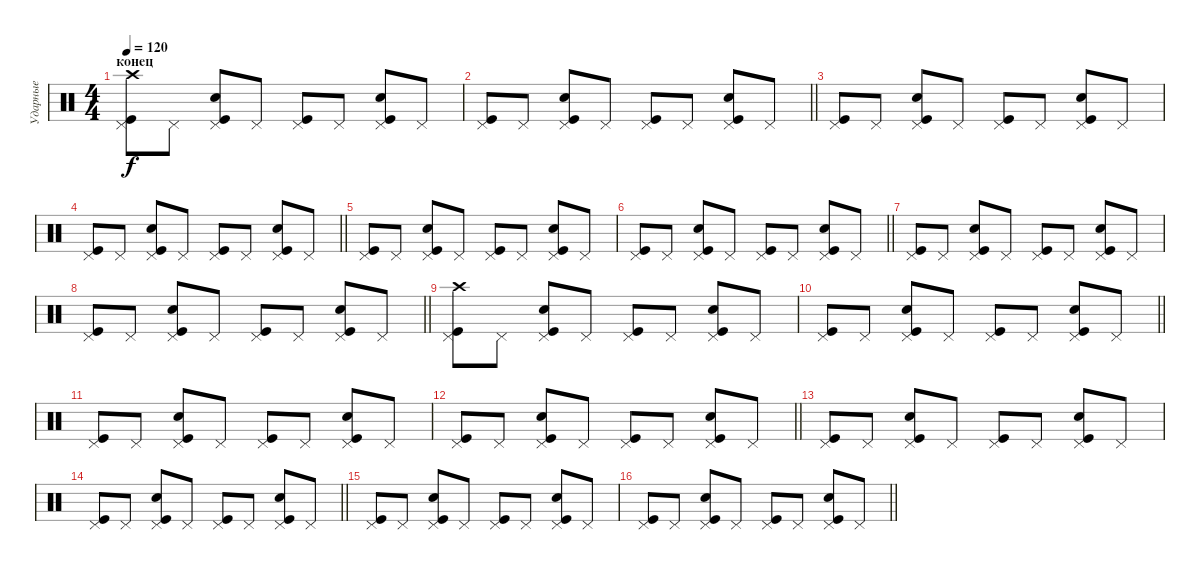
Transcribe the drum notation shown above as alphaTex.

\track ("Ударные" "Ударные") {instrument percussion}
\staff {score}
\articulation defaults
\ts (4 4)
\section ("" "конец")
\tempo 120
\clef neutral
\ks c
("Pedal Hi-Hat (hit)" "Kick (hit)" "Crash high (hit)").8{dy f} "Pedal Hi-Hat (hit)".8 ("Pedal Hi-Hat (hit)" "Kick (hit)" "Snare (hit) 2").8 "Pedal Hi-Hat (hit)".8 ("Pedal Hi-Hat (hit)" "Kick (hit)").8 "Pedal Hi-Hat (hit)".8 ("Pedal Hi-Hat (hit)" "Kick (hit)" "Snare (hit) 2").8 "Pedal Hi-Hat (hit)".8 |
\barLineRight lightlight
("Pedal Hi-Hat (hit)" "Kick (hit)").8 "Pedal Hi-Hat (hit)".8 ("Pedal Hi-Hat (hit)" "Kick (hit)" "Snare (hit) 2").8 "Pedal Hi-Hat (hit)".8 ("Pedal Hi-Hat (hit)" "Kick (hit)").8 "Pedal Hi-Hat (hit)".8 ("Pedal Hi-Hat (hit)" "Kick (hit)" "Snare (hit) 2").8 "Pedal Hi-Hat (hit)".8 |
("Pedal Hi-Hat (hit)" "Kick (hit)").8 "Pedal Hi-Hat (hit)".8 ("Pedal Hi-Hat (hit)" "Kick (hit)" "Snare (hit) 2").8 "Pedal Hi-Hat (hit)".8 ("Pedal Hi-Hat (hit)" "Kick (hit)").8 "Pedal Hi-Hat (hit)".8 ("Pedal Hi-Hat (hit)" "Kick (hit)" "Snare (hit) 2").8 "Pedal Hi-Hat (hit)".8 |
\barLineRight lightlight
("Pedal Hi-Hat (hit)" "Kick (hit)").8 "Pedal Hi-Hat (hit)".8 ("Pedal Hi-Hat (hit)" "Kick (hit)" "Snare (hit) 2").8 "Pedal Hi-Hat (hit)".8 ("Pedal Hi-Hat (hit)" "Kick (hit)").8 "Pedal Hi-Hat (hit)".8 ("Pedal Hi-Hat (hit)" "Kick (hit)" "Snare (hit) 2").8 "Pedal Hi-Hat (hit)".8 |
("Pedal Hi-Hat (hit)" "Kick (hit)").8 "Pedal Hi-Hat (hit)".8 ("Pedal Hi-Hat (hit)" "Kick (hit)" "Snare (hit) 2").8 "Pedal Hi-Hat (hit)".8 ("Pedal Hi-Hat (hit)" "Kick (hit)").8 "Pedal Hi-Hat (hit)".8 ("Pedal Hi-Hat (hit)" "Kick (hit)" "Snare (hit) 2").8 "Pedal Hi-Hat (hit)".8 |
\barLineRight lightlight
("Pedal Hi-Hat (hit)" "Kick (hit)").8 "Pedal Hi-Hat (hit)".8 ("Pedal Hi-Hat (hit)" "Kick (hit)" "Snare (hit) 2").8 "Pedal Hi-Hat (hit)".8 ("Pedal Hi-Hat (hit)" "Kick (hit)").8 "Pedal Hi-Hat (hit)".8 ("Pedal Hi-Hat (hit)" "Kick (hit)" "Snare (hit) 2").8 "Pedal Hi-Hat (hit)".8 |
("Pedal Hi-Hat (hit)" "Kick (hit)").8 "Pedal Hi-Hat (hit)".8 ("Pedal Hi-Hat (hit)" "Kick (hit)" "Snare (hit) 2").8 "Pedal Hi-Hat (hit)".8 ("Pedal Hi-Hat (hit)" "Kick (hit)").8 "Pedal Hi-Hat (hit)".8 ("Pedal Hi-Hat (hit)" "Kick (hit)" "Snare (hit) 2").8 "Pedal Hi-Hat (hit)".8 |
\barLineRight lightlight
("Pedal Hi-Hat (hit)" "Kick (hit)").8 "Pedal Hi-Hat (hit)".8 ("Pedal Hi-Hat (hit)" "Kick (hit)" "Snare (hit) 2").8 "Pedal Hi-Hat (hit)".8 ("Pedal Hi-Hat (hit)" "Kick (hit)").8 "Pedal Hi-Hat (hit)".8 ("Pedal Hi-Hat (hit)" "Kick (hit)" "Snare (hit) 2").8 "Pedal Hi-Hat (hit)".8 |
("Pedal Hi-Hat (hit)" "Kick (hit)" "Crash high (hit)").8 "Pedal Hi-Hat (hit)".8 ("Pedal Hi-Hat (hit)" "Kick (hit)" "Snare (hit) 2").8 "Pedal Hi-Hat (hit)".8 ("Pedal Hi-Hat (hit)" "Kick (hit)").8 "Pedal Hi-Hat (hit)".8 ("Pedal Hi-Hat (hit)" "Kick (hit)" "Snare (hit) 2").8 "Pedal Hi-Hat (hit)".8 |
\barLineRight lightlight
("Pedal Hi-Hat (hit)" "Kick (hit)").8 "Pedal Hi-Hat (hit)".8 ("Pedal Hi-Hat (hit)" "Kick (hit)" "Snare (hit) 2").8 "Pedal Hi-Hat (hit)".8 ("Pedal Hi-Hat (hit)" "Kick (hit)").8 "Pedal Hi-Hat (hit)".8 ("Pedal Hi-Hat (hit)" "Kick (hit)" "Snare (hit) 2").8 "Pedal Hi-Hat (hit)".8 |
("Pedal Hi-Hat (hit)" "Kick (hit)").8 "Pedal Hi-Hat (hit)".8 ("Pedal Hi-Hat (hit)" "Kick (hit)" "Snare (hit) 2").8 "Pedal Hi-Hat (hit)".8 ("Pedal Hi-Hat (hit)" "Kick (hit)").8 "Pedal Hi-Hat (hit)".8 ("Pedal Hi-Hat (hit)" "Kick (hit)" "Snare (hit) 2").8 "Pedal Hi-Hat (hit)".8 |
\barLineRight lightlight
("Pedal Hi-Hat (hit)" "Kick (hit)").8 "Pedal Hi-Hat (hit)".8 ("Pedal Hi-Hat (hit)" "Kick (hit)" "Snare (hit) 2").8 "Pedal Hi-Hat (hit)".8 ("Pedal Hi-Hat (hit)" "Kick (hit)").8 "Pedal Hi-Hat (hit)".8 ("Pedal Hi-Hat (hit)" "Kick (hit)" "Snare (hit) 2").8 "Pedal Hi-Hat (hit)".8 |
("Pedal Hi-Hat (hit)" "Kick (hit)").8 "Pedal Hi-Hat (hit)".8 ("Pedal Hi-Hat (hit)" "Kick (hit)" "Snare (hit) 2").8 "Pedal Hi-Hat (hit)".8 ("Pedal Hi-Hat (hit)" "Kick (hit)").8 "Pedal Hi-Hat (hit)".8 ("Pedal Hi-Hat (hit)" "Kick (hit)" "Snare (hit) 2").8 "Pedal Hi-Hat (hit)".8 |
\barLineRight lightlight
("Pedal Hi-Hat (hit)" "Kick (hit)").8 "Pedal Hi-Hat (hit)".8 ("Pedal Hi-Hat (hit)" "Kick (hit)" "Snare (hit) 2").8 "Pedal Hi-Hat (hit)".8 ("Pedal Hi-Hat (hit)" "Kick (hit)").8 "Pedal Hi-Hat (hit)".8 ("Pedal Hi-Hat (hit)" "Kick (hit)" "Snare (hit) 2").8 "Pedal Hi-Hat (hit)".8 |
("Pedal Hi-Hat (hit)" "Kick (hit)").8 "Pedal Hi-Hat (hit)".8 ("Pedal Hi-Hat (hit)" "Kick (hit)" "Snare (hit) 2").8 "Pedal Hi-Hat (hit)".8 ("Pedal Hi-Hat (hit)" "Kick (hit)").8 "Pedal Hi-Hat (hit)".8 ("Pedal Hi-Hat (hit)" "Kick (hit)" "Snare (hit) 2").8 "Pedal Hi-Hat (hit)".8 |
\barLineRight lightlight
("Pedal Hi-Hat (hit)" "Kick (hit)").8 "Pedal Hi-Hat (hit)".8 ("Pedal Hi-Hat (hit)" "Kick (hit)" "Snare (hit) 2").8 "Pedal Hi-Hat (hit)".8 ("Pedal Hi-Hat (hit)" "Kick (hit)").8 "Pedal Hi-Hat (hit)".8 ("Pedal Hi-Hat (hit)" "Kick (hit)" "Snare (hit) 2").8 "Pedal Hi-Hat (hit)".8
